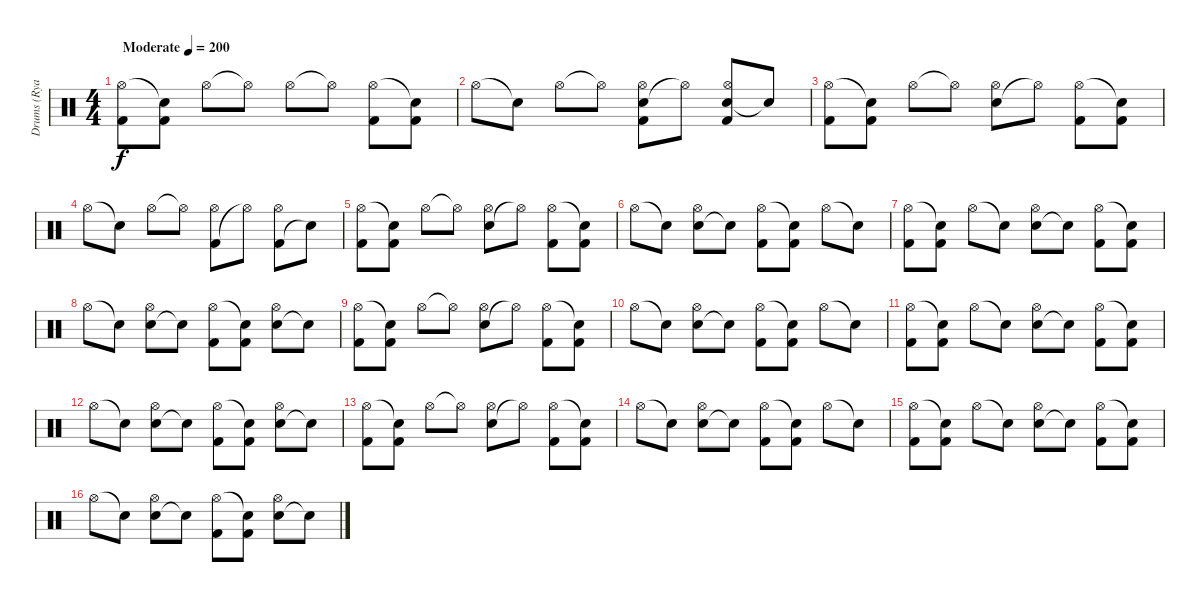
\track ("Drums (Ryan Carroll)" "Drums (Rya") {instrument percussion}
\staff {score}
\articulation defaults
\ts (4 4)
\tempo (200 "Moderate")
\clef neutral
\ks c
("Kick (hit) 2" "Hi-Hat (open)").8{dy f} ("Kick (hit) 2" "Snare (hit)"{t}).8 "Hi-Hat (open)".8 "Hi-Hat (open)"{t}.8 "Hi-Hat (open)".8 "Hi-Hat (open)"{t}.8 ("Kick (hit) 2" "Hi-Hat (open)").8 ("Kick (hit) 2" "Snare (hit)"{t}).8 |
"Hi-Hat (open)".8 "Snare (hit)"{t}.8 "Hi-Hat (open)".8 "Hi-Hat (open)"{t}.8 ("Snare (hit) 2" "Kick (hit) 2" "Hi-Hat (open)").8 "Hi-Hat (open)"{t}.8 ("Snare (hit) 2" "Kick (hit) 2" "Hi-Hat (open)").8 "Snare (hit)"{t}.8 |
("Kick (hit) 2" "Hi-Hat (open)").8 ("Kick (hit) 2" "Snare (hit)"{t}).8 "Hi-Hat (open)".8 "Hi-Hat (open)"{t}.8 ("Snare (hit) 2" "Hi-Hat (open)").8 "Hi-Hat (open)"{t}.8 ("Kick (hit) 2" "Hi-Hat (open)").8 ("Kick (hit) 2" "Snare (hit)"{t}).8 |
"Hi-Hat (open)".8 "Snare (hit)"{t}.8 "Hi-Hat (open)".8 "Hi-Hat (open)"{t}.8 ("Kick (hit) 2" "Hi-Hat (open)").8 "Hi-Hat (open)"{t}.8 ("Kick (hit) 2" "Hi-Hat (open)").8 "Snare (hit)"{t}.8 |
("Kick (hit) 2" "Hi-Hat (open)").8 ("Kick (hit) 2" "Snare (hit)"{t}).8 "Hi-Hat (open)".8 "Hi-Hat (open)"{t}.8 ("Snare (hit) 2" "Hi-Hat (open)").8 "Hi-Hat (open)"{t}.8 ("Kick (hit) 2" "Hi-Hat (open)").8 ("Kick (hit) 2" "Snare (hit)"{t}).8 |
"Hi-Hat (open)".8 "Snare (hit)"{t}.8 ("Snare (hit) 2" "Hi-Hat (open)").8 "Snare (hit)"{t}.8 ("Kick (hit) 2" "Hi-Hat (open)").8 ("Kick (hit) 2" "Snare (hit)"{t}).8 "Hi-Hat (open)".8 "Snare (hit)"{t}.8 |
("Kick (hit) 2" "Hi-Hat (open)").8 ("Kick (hit) 2" "Snare (hit)"{t}).8 "Hi-Hat (open)".8 "Snare (hit)"{t}.8 ("Snare (hit) 2" "Hi-Hat (open)").8 "Snare (hit)"{t}.8 ("Kick (hit) 2" "Hi-Hat (open)").8 ("Kick (hit) 2" "Snare (hit)"{t}).8 |
"Hi-Hat (open)".8 "Snare (hit)"{t}.8 ("Snare (hit) 2" "Hi-Hat (open)").8 "Snare (hit)"{t}.8 ("Kick (hit) 2" "Hi-Hat (open)").8 ("Kick (hit) 2" "Snare (hit)"{t}).8 ("Snare (hit) 2" "Hi-Hat (open)").8 "Snare (hit)"{t}.8 |
("Kick (hit) 2" "Hi-Hat (open)").8 ("Kick (hit) 2" "Snare (hit)"{t}).8 "Hi-Hat (open)".8 "Hi-Hat (open)"{t}.8 ("Snare (hit) 2" "Hi-Hat (open)").8 "Hi-Hat (open)"{t}.8 ("Kick (hit) 2" "Hi-Hat (open)").8 ("Kick (hit) 2" "Snare (hit)"{t}).8 |
"Hi-Hat (open)".8 "Snare (hit)"{t}.8 ("Snare (hit) 2" "Hi-Hat (open)").8 "Snare (hit)"{t}.8 ("Kick (hit) 2" "Hi-Hat (open)").8 ("Kick (hit) 2" "Snare (hit)"{t}).8 "Hi-Hat (open)".8 "Snare (hit)"{t}.8 |
("Kick (hit) 2" "Hi-Hat (open)").8 ("Kick (hit) 2" "Snare (hit)"{t}).8 "Hi-Hat (open)".8 "Snare (hit)"{t}.8 ("Snare (hit) 2" "Hi-Hat (open)").8 "Snare (hit)"{t}.8 ("Kick (hit) 2" "Hi-Hat (open)").8 ("Kick (hit) 2" "Snare (hit)"{t}).8 |
"Hi-Hat (open)".8 "Snare (hit)"{t}.8 ("Snare (hit) 2" "Hi-Hat (open)").8 "Snare (hit)"{t}.8 ("Kick (hit) 2" "Hi-Hat (open)").8 ("Kick (hit) 2" "Snare (hit)"{t}).8 ("Snare (hit) 2" "Hi-Hat (open)").8 "Snare (hit)"{t}.8 |
("Kick (hit) 2" "Hi-Hat (open)").8 ("Kick (hit) 2" "Snare (hit)"{t}).8 "Hi-Hat (open)".8 "Hi-Hat (open)"{t}.8 ("Snare (hit) 2" "Hi-Hat (open)").8 "Hi-Hat (open)"{t}.8 ("Kick (hit) 2" "Hi-Hat (open)").8 ("Kick (hit) 2" "Snare (hit)"{t}).8 |
"Hi-Hat (open)".8 "Snare (hit)"{t}.8 ("Snare (hit) 2" "Hi-Hat (open)").8 "Snare (hit)"{t}.8 ("Kick (hit) 2" "Hi-Hat (open)").8 ("Kick (hit) 2" "Snare (hit)"{t}).8 "Hi-Hat (open)".8 "Snare (hit)"{t}.8 |
("Kick (hit) 2" "Hi-Hat (open)").8 ("Kick (hit) 2" "Snare (hit)"{t}).8 "Hi-Hat (open)".8 "Snare (hit)"{t}.8 ("Snare (hit) 2" "Hi-Hat (open)").8 "Snare (hit)"{t}.8 ("Kick (hit) 2" "Hi-Hat (open)").8 ("Kick (hit) 2" "Snare (hit)"{t}).8 |
"Hi-Hat (open)".8 "Snare (hit)"{t}.8 ("Snare (hit) 2" "Hi-Hat (open)").8 "Snare (hit)"{t}.8 ("Kick (hit) 2" "Hi-Hat (open)").8 ("Kick (hit) 2" "Snare (hit)"{t}).8 ("Snare (hit) 2" "Hi-Hat (open)").8 "Snare (hit)"{t}.8
